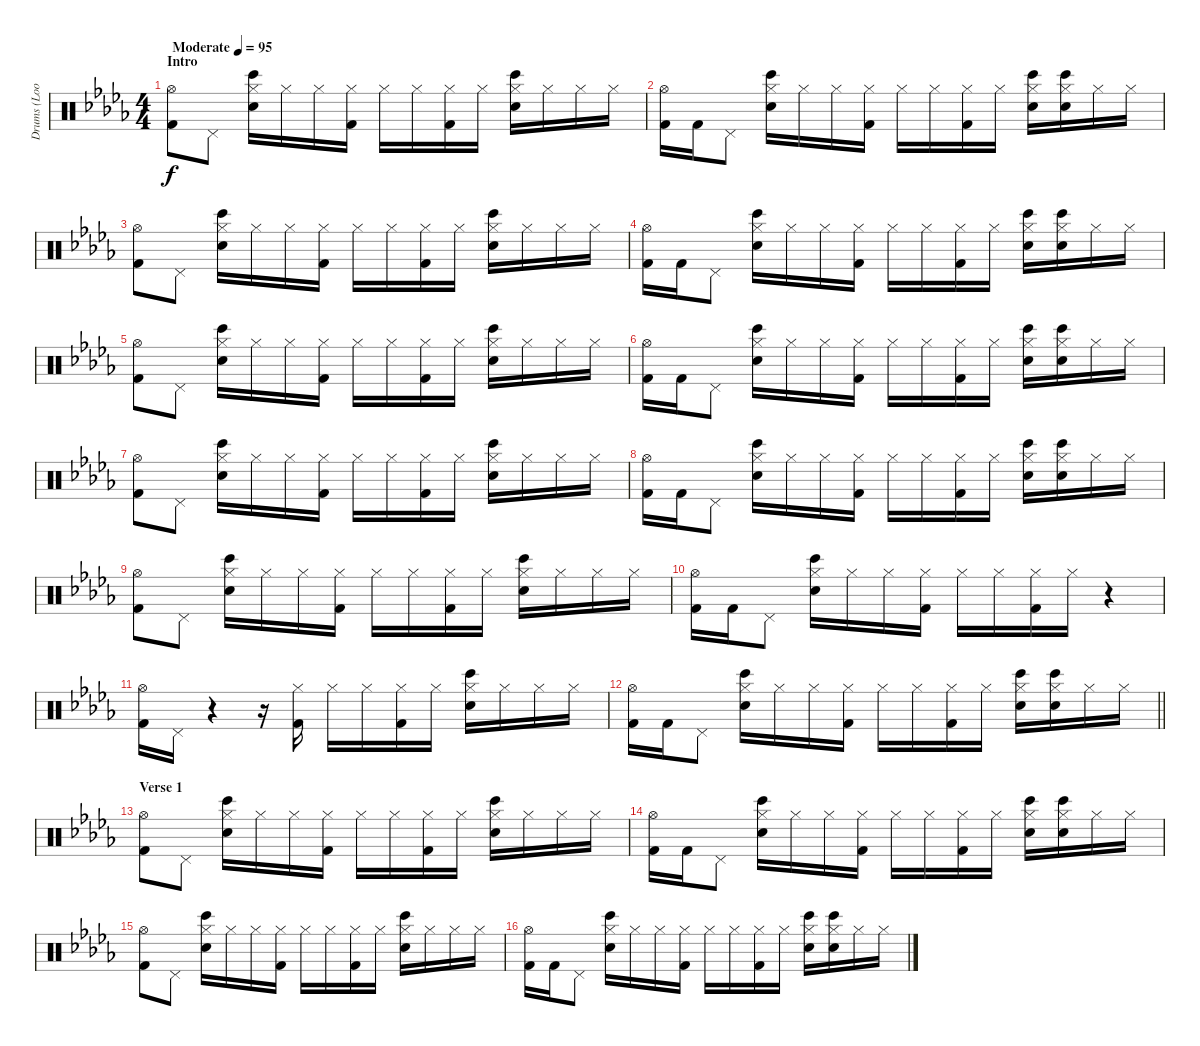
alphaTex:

\track ("Drums (Loops)" "Drums (Loo") {instrument percussion}
\staff {score}
\articulation defaults
\ts (4 4)
\section ("" "Intro")
\tempo (95 "Moderate")
\clef neutral
\ks db
("Hi-Hat (open)" "Kick (hit) 2").8{dy f} "Pedal Hi-Hat (hit)".8 ("Hi-Hat (closed)" "Snare (hit) 2" "Bongo High (hit)").16 "Hi-Hat (closed)".16 "Hi-Hat (closed)".16 ("Hi-Hat (closed)" "Kick (hit) 2").16 "Hi-Hat (closed)".16 "Hi-Hat (closed)".16 ("Hi-Hat (closed)" "Kick (hit) 2").16 "Hi-Hat (closed)".16 ("Hi-Hat (closed)" "Snare (hit) 2" "Bongo High (hit)").16 "Hi-Hat (closed)".16 "Hi-Hat (closed)".16 "Hi-Hat (closed)".16 |
("Hi-Hat (open)" "Kick (hit) 2").16 "Kick (hit) 2".16 "Pedal Hi-Hat (hit)".8 ("Hi-Hat (closed)" "Snare (hit) 2" "Bongo High (hit)").16 "Hi-Hat (closed)".16 "Hi-Hat (closed)".16 ("Hi-Hat (closed)" "Kick (hit) 2").16 "Hi-Hat (closed)".16 "Hi-Hat (closed)".16 ("Hi-Hat (closed)" "Kick (hit) 2").16 "Hi-Hat (closed)".16 ("Hi-Hat (closed)" "Snare (hit) 2" "Bongo High (hit)").16 ("Hi-Hat (closed)" "Snare (hit) 2" "Bongo High (hit)").16 "Hi-Hat (closed)".16 "Hi-Hat (closed)".16 |
("Hi-Hat (open)" "Kick (hit) 2").8 "Pedal Hi-Hat (hit)".8 ("Hi-Hat (closed)" "Snare (hit) 2" "Bongo High (hit)").16 "Hi-Hat (closed)".16 "Hi-Hat (closed)".16 ("Hi-Hat (closed)" "Kick (hit) 2").16 "Hi-Hat (closed)".16 "Hi-Hat (closed)".16 ("Hi-Hat (closed)" "Kick (hit) 2").16 "Hi-Hat (closed)".16 ("Hi-Hat (closed)" "Snare (hit) 2" "Bongo High (hit)").16 "Hi-Hat (closed)".16 "Hi-Hat (closed)".16 "Hi-Hat (closed)".16 |
("Hi-Hat (open)" "Kick (hit) 2").16 "Kick (hit) 2".16 "Pedal Hi-Hat (hit)".8 ("Hi-Hat (closed)" "Snare (hit) 2" "Bongo High (hit)").16 "Hi-Hat (closed)".16 "Hi-Hat (closed)".16 ("Hi-Hat (closed)" "Kick (hit) 2").16 "Hi-Hat (closed)".16 "Hi-Hat (closed)".16 ("Hi-Hat (closed)" "Kick (hit) 2").16 "Hi-Hat (closed)".16 ("Hi-Hat (closed)" "Snare (hit) 2" "Bongo High (hit)").16 ("Hi-Hat (closed)" "Snare (hit) 2" "Bongo High (hit)").16 "Hi-Hat (closed)".16 "Hi-Hat (closed)".16 |
("Hi-Hat (open)" "Kick (hit) 2").8 "Pedal Hi-Hat (hit)".8 ("Hi-Hat (closed)" "Snare (hit) 2" "Bongo High (hit)").16 "Hi-Hat (closed)".16 "Hi-Hat (closed)".16 ("Hi-Hat (closed)" "Kick (hit) 2").16 "Hi-Hat (closed)".16 "Hi-Hat (closed)".16 ("Hi-Hat (closed)" "Kick (hit) 2").16 "Hi-Hat (closed)".16 ("Hi-Hat (closed)" "Snare (hit) 2" "Bongo High (hit)").16 "Hi-Hat (closed)".16 "Hi-Hat (closed)".16 "Hi-Hat (closed)".16 |
("Hi-Hat (open)" "Kick (hit) 2").16 "Kick (hit) 2".16 "Pedal Hi-Hat (hit)".8 ("Hi-Hat (closed)" "Snare (hit) 2" "Bongo High (hit)").16 "Hi-Hat (closed)".16 "Hi-Hat (closed)".16 ("Hi-Hat (closed)" "Kick (hit) 2").16 "Hi-Hat (closed)".16 "Hi-Hat (closed)".16 ("Hi-Hat (closed)" "Kick (hit) 2").16 "Hi-Hat (closed)".16 ("Hi-Hat (closed)" "Snare (hit) 2" "Bongo High (hit)").16 ("Hi-Hat (closed)" "Snare (hit) 2" "Bongo High (hit)").16 "Hi-Hat (closed)".16 "Hi-Hat (closed)".16 |
("Hi-Hat (open)" "Kick (hit) 2").8 "Pedal Hi-Hat (hit)".8 ("Hi-Hat (closed)" "Snare (hit) 2" "Bongo High (hit)").16 "Hi-Hat (closed)".16 "Hi-Hat (closed)".16 ("Hi-Hat (closed)" "Kick (hit) 2").16 "Hi-Hat (closed)".16 "Hi-Hat (closed)".16 ("Hi-Hat (closed)" "Kick (hit) 2").16 "Hi-Hat (closed)".16 ("Hi-Hat (closed)" "Snare (hit) 2" "Bongo High (hit)").16 "Hi-Hat (closed)".16 "Hi-Hat (closed)".16 "Hi-Hat (closed)".16 |
("Hi-Hat (open)" "Kick (hit) 2").16 "Kick (hit) 2".16 "Pedal Hi-Hat (hit)".8 ("Hi-Hat (closed)" "Snare (hit) 2" "Bongo High (hit)").16 "Hi-Hat (closed)".16 "Hi-Hat (closed)".16 ("Hi-Hat (closed)" "Kick (hit) 2").16 "Hi-Hat (closed)".16 "Hi-Hat (closed)".16 ("Hi-Hat (closed)" "Kick (hit) 2").16 "Hi-Hat (closed)".16 ("Hi-Hat (closed)" "Snare (hit) 2" "Bongo High (hit)").16 ("Hi-Hat (closed)" "Snare (hit) 2" "Bongo High (hit)").16 "Hi-Hat (closed)".16 "Hi-Hat (closed)".16 |
("Hi-Hat (open)" "Kick (hit) 2").8 "Pedal Hi-Hat (hit)".8 ("Hi-Hat (closed)" "Snare (hit) 2" "Bongo High (hit)").16 "Hi-Hat (closed)".16 "Hi-Hat (closed)".16 ("Hi-Hat (closed)" "Kick (hit) 2").16 "Hi-Hat (closed)".16 "Hi-Hat (closed)".16 ("Hi-Hat (closed)" "Kick (hit) 2").16 "Hi-Hat (closed)".16 ("Hi-Hat (closed)" "Snare (hit) 2" "Bongo High (hit)").16 "Hi-Hat (closed)".16 "Hi-Hat (closed)".16 "Hi-Hat (closed)".16 |
("Hi-Hat (open)" "Kick (hit) 2").16 "Kick (hit) 2".16 "Pedal Hi-Hat (hit)".8 ("Hi-Hat (closed)" "Snare (hit) 2" "Bongo High (hit)").16 "Hi-Hat (closed)".16 "Hi-Hat (closed)".16 ("Hi-Hat (closed)" "Kick (hit) 2").16 "Hi-Hat (closed)".16 "Hi-Hat (closed)".16 ("Hi-Hat (closed)" "Kick (hit) 2").16 "Hi-Hat (closed)".16 r.4 |
("Hi-Hat (open)" "Kick (hit) 2").16 "Pedal Hi-Hat (hit)".16 r.4 r.16 ("Hi-Hat (closed)" "Kick (hit) 2").16 "Hi-Hat (closed)".16 "Hi-Hat (closed)".16 ("Hi-Hat (closed)" "Kick (hit) 2").16 "Hi-Hat (closed)".16 ("Hi-Hat (closed)" "Snare (hit) 2" "Bongo High (hit)").16 "Hi-Hat (closed)".16 "Hi-Hat (closed)".16 "Hi-Hat (closed)".16 |
\barLineRight lightlight
("Hi-Hat (open)" "Kick (hit) 2").16 "Kick (hit) 2".16 "Pedal Hi-Hat (hit)".8 ("Hi-Hat (closed)" "Snare (hit) 2" "Bongo High (hit)").16 "Hi-Hat (closed)".16 "Hi-Hat (closed)".16 ("Hi-Hat (closed)" "Kick (hit) 2").16 "Hi-Hat (closed)".16 "Hi-Hat (closed)".16 ("Hi-Hat (closed)" "Kick (hit) 2").16 "Hi-Hat (closed)".16 ("Hi-Hat (closed)" "Snare (hit) 2" "Bongo High (hit)").16 ("Hi-Hat (closed)" "Snare (hit) 2" "Bongo High (hit)").16 "Hi-Hat (closed)".16 "Hi-Hat (closed)".16 |
\section ("" "Verse 1")
("Hi-Hat (open)" "Kick (hit) 2").8 "Pedal Hi-Hat (hit)".8 ("Hi-Hat (closed)" "Snare (hit) 2" "Bongo High (hit)").16 "Hi-Hat (closed)".16 "Hi-Hat (closed)".16 ("Hi-Hat (closed)" "Kick (hit) 2").16 "Hi-Hat (closed)".16 "Hi-Hat (closed)".16 ("Hi-Hat (closed)" "Kick (hit) 2").16 "Hi-Hat (closed)".16 ("Hi-Hat (closed)" "Snare (hit) 2" "Bongo High (hit)").16 "Hi-Hat (closed)".16 "Hi-Hat (closed)".16 "Hi-Hat (closed)".16 |
("Hi-Hat (open)" "Kick (hit) 2").16 "Kick (hit) 2".16 "Pedal Hi-Hat (hit)".8 ("Hi-Hat (closed)" "Snare (hit) 2" "Bongo High (hit)").16 "Hi-Hat (closed)".16 "Hi-Hat (closed)".16 ("Hi-Hat (closed)" "Kick (hit) 2").16 "Hi-Hat (closed)".16 "Hi-Hat (closed)".16 ("Hi-Hat (closed)" "Kick (hit) 2").16 "Hi-Hat (closed)".16 ("Hi-Hat (closed)" "Snare (hit) 2" "Bongo High (hit)").16 ("Hi-Hat (closed)" "Snare (hit) 2" "Bongo High (hit)").16 "Hi-Hat (closed)".16 "Hi-Hat (closed)".16 |
("Hi-Hat (open)" "Kick (hit) 2").8 "Pedal Hi-Hat (hit)".8 ("Hi-Hat (closed)" "Snare (hit) 2" "Bongo High (hit)").16 "Hi-Hat (closed)".16 "Hi-Hat (closed)".16 ("Hi-Hat (closed)" "Kick (hit) 2").16 "Hi-Hat (closed)".16 "Hi-Hat (closed)".16 ("Hi-Hat (closed)" "Kick (hit) 2").16 "Hi-Hat (closed)".16 ("Hi-Hat (closed)" "Snare (hit) 2" "Bongo High (hit)").16 "Hi-Hat (closed)".16 "Hi-Hat (closed)".16 "Hi-Hat (closed)".16 |
("Hi-Hat (open)" "Kick (hit) 2").16 "Kick (hit) 2".16 "Pedal Hi-Hat (hit)".8 ("Hi-Hat (closed)" "Snare (hit) 2" "Bongo High (hit)").16 "Hi-Hat (closed)".16 "Hi-Hat (closed)".16 ("Hi-Hat (closed)" "Kick (hit) 2").16 "Hi-Hat (closed)".16 "Hi-Hat (closed)".16 ("Hi-Hat (closed)" "Kick (hit) 2").16 "Hi-Hat (closed)".16 ("Hi-Hat (closed)" "Snare (hit) 2" "Bongo High (hit)").16 ("Hi-Hat (closed)" "Snare (hit) 2" "Bongo High (hit)").16 "Hi-Hat (closed)".16 "Hi-Hat (closed)".16
